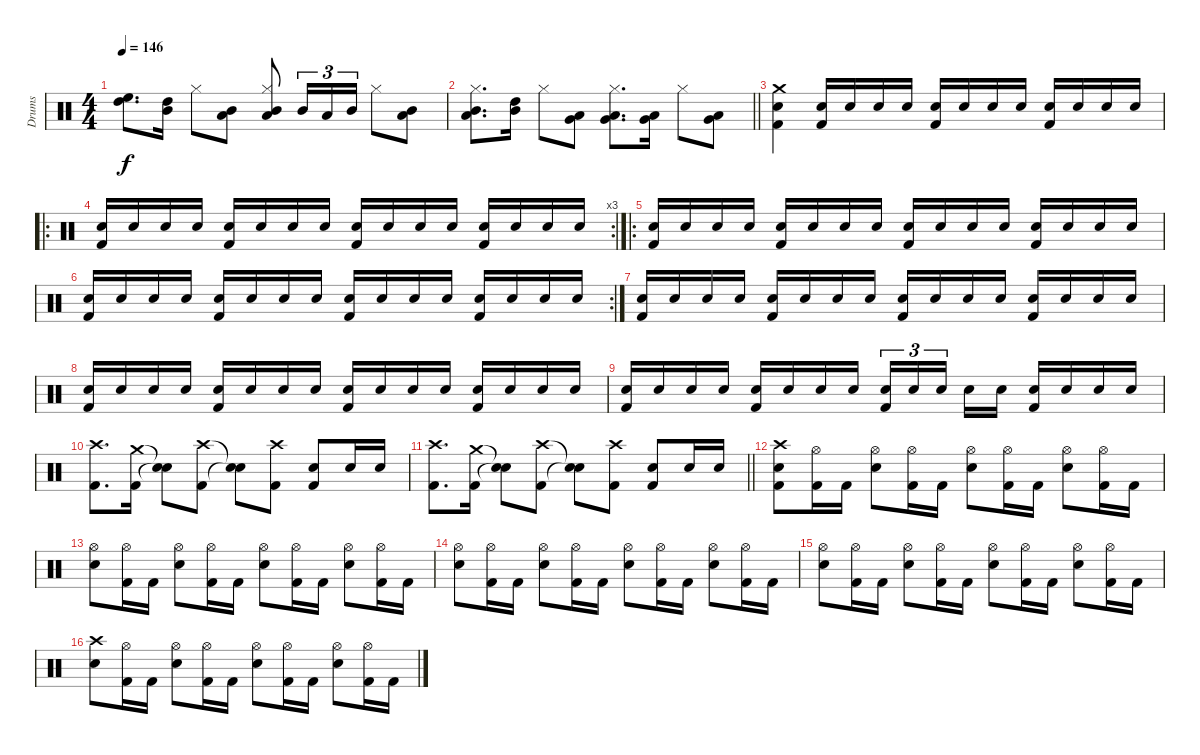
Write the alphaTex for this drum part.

\track ("Drums" "Drums") {instrument percussion}
\staff {score}
\articulation defaults
\ts (4 4)
\tempo 146
\clef neutral
\ks c
("High Floor Tom (hit)" "High Tom (hit)").8{d dy f} ("High Tom (hit)" "Mid Tom (hit)").16 "Hi-Hat (closed)".8 ("Mid Tom (hit)" "Low Tom (hit)").8 ("Hi-Hat (closed)" "Mid Tom (hit)" "Low Tom (hit)").8 "Mid Tom (hit)".16{tu (3 2)} "Low Tom (hit)".16{tu (3 2)} "Mid Tom (hit)".16{tu (3 2)} "Hi-Hat (closed)".8 ("Mid Tom (hit)" "Low Tom (hit)").8 |
\barLineRight lightlight
("Hi-Hat (closed)" "Mid Tom (hit)" "Low Tom (hit)").8{d} ("High Tom (hit)" "Mid Tom (hit)").16 "Hi-Hat (closed)".8 ("Low Tom (hit)" "Very Low Tom (hit)").8 ("Hi-Hat (closed)" "Low Tom (hit)" "Very Low Tom (hit)").8{d} ("Low Tom (hit)" "Very Low Tom (hit)").16 "Hi-Hat (closed)".8 ("Very Low Tom (hit)" "Low Floor Tom (hit)").8 |
("Crash medium (hit)" "Snare (hit) 2" "Kick (hit) 2").4 ("Snare (hit) 2" "Kick (hit) 2").16 "Snare (hit) 2".16 "Snare (hit) 2".16 "Snare (hit) 2".16 ("Snare (hit) 2" "Kick (hit) 2").16 "Snare (hit) 2".16 "Snare (hit) 2".16 "Snare (hit) 2".16 ("Snare (hit) 2" "Kick (hit) 2").16 "Snare (hit) 2".16 "Snare (hit) 2".16 "Snare (hit) 2".16 |
\ro
\rc 3
("Snare (hit) 2" "Kick (hit) 2").16 "Snare (hit) 2".16 "Snare (hit) 2".16 "Snare (hit) 2".16 ("Snare (hit) 2" "Kick (hit) 2").16 "Snare (hit) 2".16 "Snare (hit) 2".16 "Snare (hit) 2".16 ("Snare (hit) 2" "Kick (hit) 2").16 "Snare (hit) 2".16 "Snare (hit) 2".16 "Snare (hit) 2".16 ("Snare (hit) 2" "Kick (hit) 2").16 "Snare (hit) 2".16 "Snare (hit) 2".16 "Snare (hit) 2".16 |
\ro
("Snare (hit) 2" "Kick (hit) 2").16 "Snare (hit) 2".16 "Snare (hit) 2".16 "Snare (hit) 2".16 ("Snare (hit) 2" "Kick (hit) 2").16 "Snare (hit) 2".16 "Snare (hit) 2".16 "Snare (hit) 2".16 ("Snare (hit) 2" "Kick (hit) 2").16 "Snare (hit) 2".16 "Snare (hit) 2".16 "Snare (hit) 2".16 ("Snare (hit) 2" "Kick (hit) 2").16 "Snare (hit) 2".16 "Snare (hit) 2".16 "Snare (hit) 2".16 |
\rc 2
("Snare (hit) 2" "Kick (hit) 2").16 "Snare (hit) 2".16 "Snare (hit) 2".16 "Snare (hit) 2".16 ("Snare (hit) 2" "Kick (hit) 2").16 "Snare (hit) 2".16 "Snare (hit) 2".16 "Snare (hit) 2".16 ("Snare (hit) 2" "Kick (hit) 2").16 "Snare (hit) 2".16 "Snare (hit) 2".16 "Snare (hit) 2".16 ("Snare (hit) 2" "Kick (hit) 2").16 "Snare (hit) 2".16 "Snare (hit) 2".16 "Snare (hit) 2".16 |
("Snare (hit) 2" "Kick (hit) 2").16 "Snare (hit) 2".16 "Snare (hit) 2".16 "Snare (hit) 2".16 ("Snare (hit) 2" "Kick (hit) 2").16 "Snare (hit) 2".16 "Snare (hit) 2".16 "Snare (hit) 2".16 ("Snare (hit) 2" "Kick (hit) 2").16 "Snare (hit) 2".16 "Snare (hit) 2".16 "Snare (hit) 2".16 ("Snare (hit) 2" "Kick (hit) 2").16 "Snare (hit) 2".16 "Snare (hit) 2".16 "Snare (hit) 2".16 |
("Snare (hit) 2" "Kick (hit) 2").16 "Snare (hit) 2".16 "Snare (hit) 2".16 "Snare (hit) 2".16 ("Snare (hit) 2" "Kick (hit) 2").16 "Snare (hit) 2".16 "Snare (hit) 2".16 "Snare (hit) 2".16 ("Snare (hit) 2" "Kick (hit) 2").16 "Snare (hit) 2".16 "Snare (hit) 2".16 "Snare (hit) 2".16 ("Snare (hit) 2" "Kick (hit) 2").16 "Snare (hit) 2".16 "Snare (hit) 2".16 "Snare (hit) 2".16 |
("Snare (hit) 2" "Kick (hit) 2").16 "Snare (hit) 2".16 "Snare (hit) 2".16 "Snare (hit) 2".16 ("Snare (hit) 2" "Kick (hit) 2").16 "Snare (hit) 2".16 "Snare (hit) 2".16 "Snare (hit) 2".16 ("Snare (hit) 2" "Kick (hit) 2").16{tu (3 2)} "Snare (hit) 2".16{tu (3 2)} "Snare (hit) 2".16{tu (3 2) beam splitsecondary} "Snare (hit) 2".16 "Snare (hit) 2".16 ("Snare (hit) 2" "Kick (hit) 2").16 "Snare (hit) 2".16 "Snare (hit) 2".16 "Snare (hit) 2".16 |
("Crash high (hit)" "Kick (hit) 2").8{d} ("Crash medium (hit)" "Kick (hit) 2").16 ("Snare (hit)"{t} "Snare (hit)"{t}).8 ("Crash high (hit)" "Kick (hit) 2").8 ("Snare (hit)"{t} "Snare (hit)"{t}).8 ("Crash high (hit)" "Kick (hit) 2").8 ("Snare (hit) 2" "Kick (hit) 2").8 "Snare (hit) 2".16 "Snare (hit) 2".16 |
\barLineRight lightlight
("Crash high (hit)" "Kick (hit) 2").8{d} ("Crash medium (hit)" "Kick (hit) 2").16 ("Snare (hit)"{t} "Snare (hit)"{t}).8 ("Crash high (hit)" "Kick (hit) 2").8 ("Snare (hit)"{t} "Snare (hit)"{t}).8 ("Crash high (hit)" "Kick (hit) 2").8 ("Snare (hit) 2" "Kick (hit) 2").8 "Snare (hit) 2".16 "Snare (hit) 2".16 |
("Crash high (hit)" "Snare (hit) 2" "Kick (hit) 2").8 ("Hi-Hat (open)" "Kick (hit) 2").16 "Kick (hit) 2".16 ("Hi-Hat (open)" "Snare (hit) 2").8 ("Hi-Hat (open)" "Kick (hit) 2").16 "Kick (hit) 2".16 ("Hi-Hat (open)" "Snare (hit) 2").8 ("Hi-Hat (open)" "Kick (hit) 2").16 "Kick (hit) 2".16 ("Hi-Hat (open)" "Snare (hit) 2").8 ("Hi-Hat (open)" "Kick (hit) 2").16 "Kick (hit) 2".16 |
("Hi-Hat (open)" "Snare (hit) 2").8 ("Hi-Hat (open)" "Kick (hit) 2").16 "Kick (hit) 2".16 ("Hi-Hat (open)" "Snare (hit) 2").8 ("Hi-Hat (open)" "Kick (hit) 2").16 "Kick (hit) 2".16 ("Hi-Hat (open)" "Snare (hit) 2").8 ("Hi-Hat (open)" "Kick (hit) 2").16 "Kick (hit) 2".16 ("Hi-Hat (open)" "Snare (hit) 2").8 ("Hi-Hat (open)" "Kick (hit) 2").16 "Kick (hit) 2".16 |
("Hi-Hat (open)" "Snare (hit) 2").8 ("Hi-Hat (open)" "Kick (hit) 2").16 "Kick (hit) 2".16 ("Hi-Hat (open)" "Snare (hit) 2").8 ("Hi-Hat (open)" "Kick (hit) 2").16 "Kick (hit) 2".16 ("Hi-Hat (open)" "Snare (hit) 2").8 ("Hi-Hat (open)" "Kick (hit) 2").16 "Kick (hit) 2".16 ("Hi-Hat (open)" "Snare (hit) 2").8 ("Hi-Hat (open)" "Kick (hit) 2").16 "Kick (hit) 2".16 |
("Hi-Hat (open)" "Snare (hit) 2").8 ("Hi-Hat (open)" "Kick (hit) 2").16 "Kick (hit) 2".16 ("Hi-Hat (open)" "Snare (hit) 2").8 ("Hi-Hat (open)" "Kick (hit) 2").16 "Kick (hit) 2".16 ("Hi-Hat (open)" "Snare (hit) 2").8 ("Hi-Hat (open)" "Kick (hit) 2").16 "Kick (hit) 2".16 ("Hi-Hat (open)" "Snare (hit) 2").8 ("Hi-Hat (open)" "Kick (hit) 2").16 "Kick (hit) 2".16 |
("Crash high (hit)" "Snare (hit) 2").8 ("Hi-Hat (open)" "Kick (hit) 2").16 "Kick (hit) 2".16 ("Hi-Hat (open)" "Snare (hit) 2").8 ("Hi-Hat (open)" "Kick (hit) 2").16 "Kick (hit) 2".16 ("Hi-Hat (open)" "Snare (hit) 2").8 ("Hi-Hat (open)" "Kick (hit) 2").16 "Kick (hit) 2".16 ("Hi-Hat (open)" "Snare (hit) 2").8 ("Hi-Hat (open)" "Kick (hit) 2").16 "Kick (hit) 2".16
